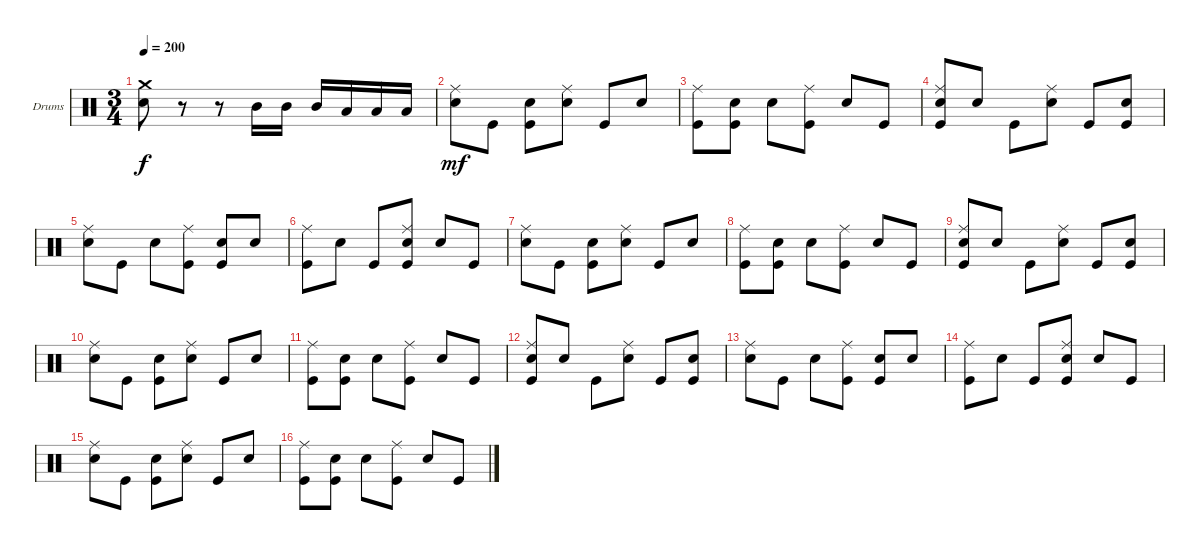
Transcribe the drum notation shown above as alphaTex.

\bracketExtendMode groupsimilarinstruments
\firstSystemTrackNameOrientation horizontal
\otherSystemsTrackNameOrientation horizontal
\track ("Drumkit" "Drums") {instrument percussion}
\staff {score}
\articulation defaults
\ts (3 4)
\tempo 200
\clef neutral
\ks c
("Snare (hit) 2" "Crash medium (hit)").8{dy f} r.8 r.8 "Mid Tom (hit)".16 "Mid Tom (hit)".16 "Mid Tom (hit)".16 "Low Tom (hit)".16 "Low Tom (hit)".16 "Low Tom (hit)".16 |
("Snare (hit) 2" "Ride (middle)").8{dy mf} "Kick (hit)".8 ("Kick (hit)" "Snare (hit) 2").8 ("Snare (hit) 2" "Ride (middle)").8 "Kick (hit)".8 "Snare (hit) 2".8 |
("Kick (hit)" "Ride (middle)").8 ("Kick (hit)" "Snare (hit) 2").8 "Snare (hit) 2".8 ("Kick (hit)" "Ride (middle)").8 "Snare (hit) 2".8 "Kick (hit)".8 |
("Kick (hit)" "Snare (hit) 2" "Ride (middle)").8 "Snare (hit) 2".8 "Kick (hit)".8 ("Snare (hit) 2" "Ride (middle)").8 "Kick (hit)".8 ("Kick (hit)" "Snare (hit) 2").8 |
("Snare (hit) 2" "Ride (middle)").8 "Kick (hit)".8 "Snare (hit) 2".8 ("Kick (hit)" "Ride (middle)").8 ("Kick (hit)" "Snare (hit) 2").8 "Snare (hit) 2".8 |
("Kick (hit)" "Ride (middle)").8 "Snare (hit) 2".8 "Kick (hit)".8 ("Kick (hit)" "Snare (hit) 2" "Ride (middle)").8 "Snare (hit) 2".8 "Kick (hit)".8 |
("Snare (hit) 2" "Ride (middle)").8 "Kick (hit)".8 ("Kick (hit)" "Snare (hit) 2").8 ("Snare (hit) 2" "Ride (middle)").8 "Kick (hit)".8 "Snare (hit) 2".8 |
("Kick (hit)" "Ride (middle)").8 ("Kick (hit)" "Snare (hit) 2").8 "Snare (hit) 2".8 ("Kick (hit)" "Ride (middle)").8 "Snare (hit) 2".8 "Kick (hit)".8 |
("Kick (hit)" "Snare (hit) 2" "Ride (middle)").8 "Snare (hit) 2".8 "Kick (hit)".8 ("Snare (hit) 2" "Ride (middle)").8 "Kick (hit)".8 ("Kick (hit)" "Snare (hit) 2").8 |
("Snare (hit) 2" "Ride (middle)").8 "Kick (hit)".8 ("Kick (hit)" "Snare (hit) 2").8 ("Snare (hit) 2" "Ride (middle)").8 "Kick (hit)".8 "Snare (hit) 2".8 |
("Kick (hit)" "Ride (middle)").8 ("Kick (hit)" "Snare (hit) 2").8 "Snare (hit) 2".8 ("Kick (hit)" "Ride (middle)").8 "Snare (hit) 2".8 "Kick (hit)".8 |
("Kick (hit)" "Snare (hit) 2" "Ride (middle)").8 "Snare (hit) 2".8 "Kick (hit)".8 ("Snare (hit) 2" "Ride (middle)").8 "Kick (hit)".8 ("Kick (hit)" "Snare (hit) 2").8 |
("Snare (hit) 2" "Ride (middle)").8 "Kick (hit)".8 "Snare (hit) 2".8 ("Kick (hit)" "Ride (middle)").8 ("Kick (hit)" "Snare (hit) 2").8 "Snare (hit) 2".8 |
("Kick (hit)" "Ride (middle)").8 "Snare (hit) 2".8 "Kick (hit)".8 ("Kick (hit)" "Snare (hit) 2" "Ride (middle)").8 "Snare (hit) 2".8 "Kick (hit)".8 |
("Snare (hit) 2" "Ride (middle)").8 "Kick (hit)".8 ("Kick (hit)" "Snare (hit) 2").8 ("Snare (hit) 2" "Ride (middle)").8 "Kick (hit)".8 "Snare (hit) 2".8 |
("Kick (hit)" "Ride (middle)").8 ("Kick (hit)" "Snare (hit) 2").8 "Snare (hit) 2".8 ("Kick (hit)" "Ride (middle)").8 "Snare (hit) 2".8 "Kick (hit)".8
